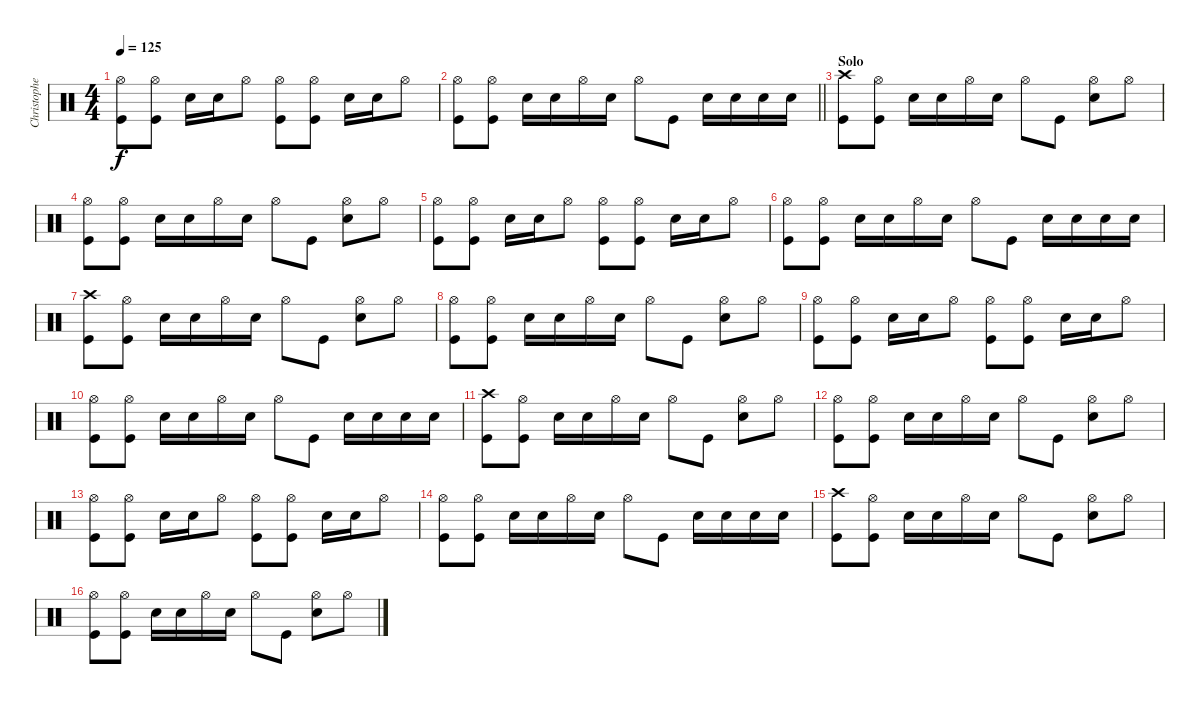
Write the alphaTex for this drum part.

\track ("Christopher - Drums" "Christophe") {instrument percussion}
\staff {score}
\articulation defaults
\ts (4 4)
\tempo 125
\clef neutral
\ks c
("Hi-Hat (open)" "Kick (hit)").8{dy f} ("Hi-Hat (open)" "Kick (hit)").8 "Electric Snare (hit)".16 "Electric Snare (hit)".16 "Hi-Hat (open)".8 ("Hi-Hat (open)" "Kick (hit)").8 ("Hi-Hat (open)" "Kick (hit)").8 "Electric Snare (hit)".16 "Electric Snare (hit)".16 "Hi-Hat (open)".8 |
\barLineRight lightlight
("Hi-Hat (open)" "Kick (hit)").8 ("Hi-Hat (open)" "Kick (hit)").8 "Electric Snare (hit)".16 "Electric Snare (hit)".16 "Hi-Hat (open)".16 "Electric Snare (hit)".16 "Hi-Hat (open)".8 "Kick (hit)".8 "Electric Snare (hit)".16 "Electric Snare (hit)".16 "Electric Snare (hit)".16 "Electric Snare (hit)".16 |
\section ("" "Solo")
("Crash high (hit)" "Kick (hit)").8 ("Hi-Hat (open)" "Kick (hit)").8 "Electric Snare (hit)".16 "Electric Snare (hit)".16 "Hi-Hat (open)".16 "Electric Snare (hit)".16 "Hi-Hat (open)".8 "Kick (hit)".8 ("Hi-Hat (open)" "Electric Snare (hit)").8 "Hi-Hat (open)".8 |
("Hi-Hat (open)" "Kick (hit)").8 ("Hi-Hat (open)" "Kick (hit)").8 "Electric Snare (hit)".16 "Electric Snare (hit)".16 "Hi-Hat (open)".16 "Electric Snare (hit)".16 "Hi-Hat (open)".8 "Kick (hit)".8 ("Hi-Hat (open)" "Electric Snare (hit)").8 "Hi-Hat (open)".8 |
("Hi-Hat (open)" "Kick (hit)").8 ("Hi-Hat (open)" "Kick (hit)").8 "Electric Snare (hit)".16 "Electric Snare (hit)".16 "Hi-Hat (open)".8 ("Hi-Hat (open)" "Kick (hit)").8 ("Hi-Hat (open)" "Kick (hit)").8 "Electric Snare (hit)".16 "Electric Snare (hit)".16 "Hi-Hat (open)".8 |
("Hi-Hat (open)" "Kick (hit)").8 ("Hi-Hat (open)" "Kick (hit)").8 "Electric Snare (hit)".16 "Electric Snare (hit)".16 "Hi-Hat (open)".16 "Electric Snare (hit)".16 "Hi-Hat (open)".8 "Kick (hit)".8 "Electric Snare (hit)".16 "Electric Snare (hit)".16 "Electric Snare (hit)".16 "Electric Snare (hit)".16 |
("Crash high (hit)" "Kick (hit)").8 ("Hi-Hat (open)" "Kick (hit)").8 "Electric Snare (hit)".16 "Electric Snare (hit)".16 "Hi-Hat (open)".16 "Electric Snare (hit)".16 "Hi-Hat (open)".8 "Kick (hit)".8 ("Hi-Hat (open)" "Electric Snare (hit)").8 "Hi-Hat (open)".8 |
("Hi-Hat (open)" "Kick (hit)").8 ("Hi-Hat (open)" "Kick (hit)").8 "Electric Snare (hit)".16 "Electric Snare (hit)".16 "Hi-Hat (open)".16 "Electric Snare (hit)".16 "Hi-Hat (open)".8 "Kick (hit)".8 ("Hi-Hat (open)" "Electric Snare (hit)").8 "Hi-Hat (open)".8 |
("Hi-Hat (open)" "Kick (hit)").8 ("Hi-Hat (open)" "Kick (hit)").8 "Electric Snare (hit)".16 "Electric Snare (hit)".16 "Hi-Hat (open)".8 ("Hi-Hat (open)" "Kick (hit)").8 ("Hi-Hat (open)" "Kick (hit)").8 "Electric Snare (hit)".16 "Electric Snare (hit)".16 "Hi-Hat (open)".8 |
("Hi-Hat (open)" "Kick (hit)").8 ("Hi-Hat (open)" "Kick (hit)").8 "Electric Snare (hit)".16 "Electric Snare (hit)".16 "Hi-Hat (open)".16 "Electric Snare (hit)".16 "Hi-Hat (open)".8 "Kick (hit)".8 "Electric Snare (hit)".16 "Electric Snare (hit)".16 "Electric Snare (hit)".16 "Electric Snare (hit)".16 |
("Crash high (hit)" "Kick (hit)").8 ("Hi-Hat (open)" "Kick (hit)").8 "Electric Snare (hit)".16 "Electric Snare (hit)".16 "Hi-Hat (open)".16 "Electric Snare (hit)".16 "Hi-Hat (open)".8 "Kick (hit)".8 ("Hi-Hat (open)" "Electric Snare (hit)").8 "Hi-Hat (open)".8 |
("Hi-Hat (open)" "Kick (hit)").8 ("Hi-Hat (open)" "Kick (hit)").8 "Electric Snare (hit)".16 "Electric Snare (hit)".16 "Hi-Hat (open)".16 "Electric Snare (hit)".16 "Hi-Hat (open)".8 "Kick (hit)".8 ("Hi-Hat (open)" "Electric Snare (hit)").8 "Hi-Hat (open)".8 |
("Hi-Hat (open)" "Kick (hit)").8 ("Hi-Hat (open)" "Kick (hit)").8 "Electric Snare (hit)".16 "Electric Snare (hit)".16 "Hi-Hat (open)".8 ("Hi-Hat (open)" "Kick (hit)").8 ("Hi-Hat (open)" "Kick (hit)").8 "Electric Snare (hit)".16 "Electric Snare (hit)".16 "Hi-Hat (open)".8 |
("Hi-Hat (open)" "Kick (hit)").8 ("Hi-Hat (open)" "Kick (hit)").8 "Electric Snare (hit)".16 "Electric Snare (hit)".16 "Hi-Hat (open)".16 "Electric Snare (hit)".16 "Hi-Hat (open)".8 "Kick (hit)".8 "Electric Snare (hit)".16 "Electric Snare (hit)".16 "Electric Snare (hit)".16 "Electric Snare (hit)".16 |
("Crash high (hit)" "Kick (hit)").8 ("Hi-Hat (open)" "Kick (hit)").8 "Electric Snare (hit)".16 "Electric Snare (hit)".16 "Hi-Hat (open)".16 "Electric Snare (hit)".16 "Hi-Hat (open)".8 "Kick (hit)".8 ("Hi-Hat (open)" "Electric Snare (hit)").8 "Hi-Hat (open)".8 |
("Hi-Hat (open)" "Kick (hit)").8 ("Hi-Hat (open)" "Kick (hit)").8 "Electric Snare (hit)".16 "Electric Snare (hit)".16 "Hi-Hat (open)".16 "Electric Snare (hit)".16 "Hi-Hat (open)".8 "Kick (hit)".8 ("Hi-Hat (open)" "Electric Snare (hit)").8 "Hi-Hat (open)".8
